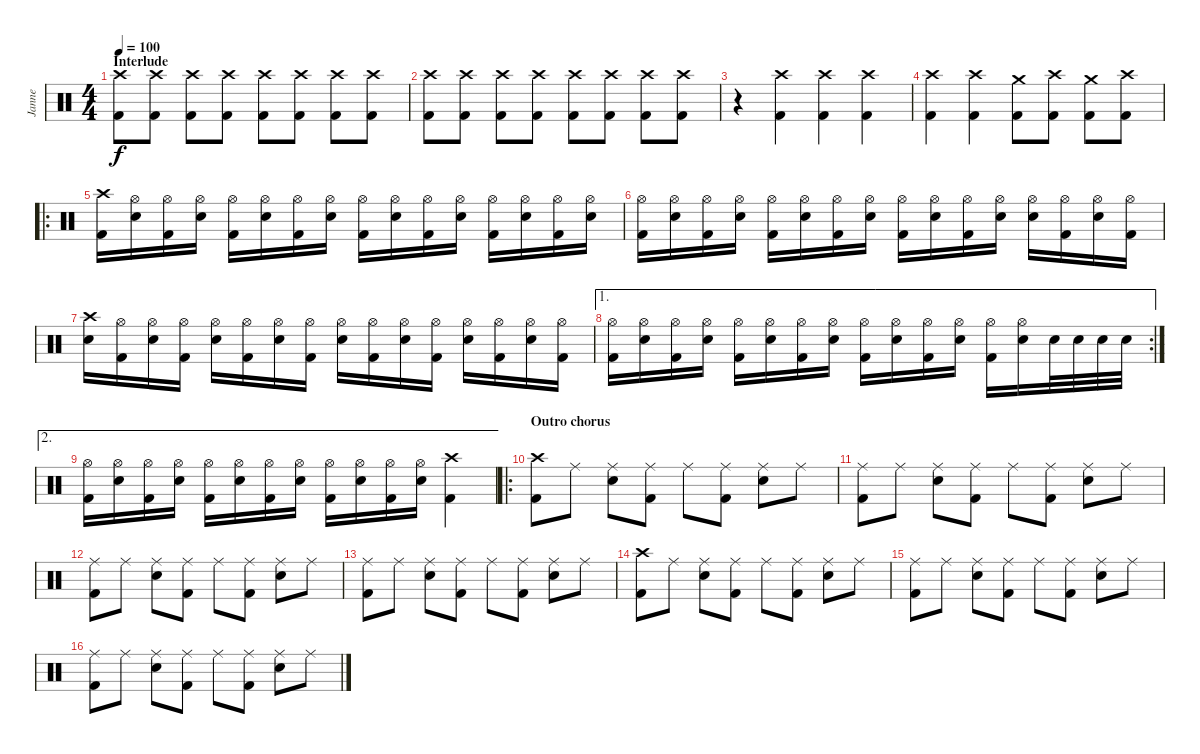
\track ("Janne" "Janne") {instrument percussion}
\staff {score}
\articulation defaults
\ts (4 4)
\section ("" "Interlude")
\tempo 100
\clef neutral
\ks c
("Crash high (hit)" "Kick (hit) 2").8{dy f} ("Crash high (hit)" "Kick (hit) 2").8 ("Crash high (hit)" "Kick (hit) 2").8 ("Crash high (hit)" "Kick (hit) 2").8 ("Crash high (hit)" "Kick (hit) 2").8 ("Crash high (hit)" "Kick (hit) 2").8 ("Crash high (hit)" "Kick (hit) 2").8 ("Crash high (hit)" "Kick (hit) 2").8 |
("Crash high (hit)" "Kick (hit) 2").8 ("Crash high (hit)" "Kick (hit) 2").8 ("Crash high (hit)" "Kick (hit) 2").8 ("Crash high (hit)" "Kick (hit) 2").8 ("Crash high (hit)" "Kick (hit) 2").8 ("Crash high (hit)" "Kick (hit) 2").8 ("Crash high (hit)" "Kick (hit) 2").8 ("Crash high (hit)" "Kick (hit) 2").8 |
r.4 ("Crash high (hit)" "Kick (hit) 2").4 ("Crash high (hit)" "Kick (hit) 2").4 ("Crash high (hit)" "Kick (hit) 2").4 |
("Crash high (hit)" "Kick (hit) 2").4 ("Crash high (hit)" "Kick (hit) 2").4 ("Crash medium (hit)" "Kick (hit) 2").8 ("Crash high (hit)" "Kick (hit) 2").8 ("Crash medium (hit)" "Kick (hit) 2").8 ("Crash high (hit)" "Kick (hit) 2").8 |
\ro
("Crash high (hit)" "Kick (hit) 2").16 ("Hi-Hat (open)" "Electric Snare (hit)").16 ("Hi-Hat (open)" "Kick (hit) 2").16 ("Hi-Hat (open)" "Electric Snare (hit)").16 ("Hi-Hat (open)" "Kick (hit) 2").16 ("Hi-Hat (open)" "Electric Snare (hit)").16 ("Hi-Hat (open)" "Kick (hit) 2").16 ("Hi-Hat (open)" "Electric Snare (hit)").16 ("Hi-Hat (open)" "Kick (hit) 2").16 ("Hi-Hat (open)" "Electric Snare (hit)").16 ("Hi-Hat (open)" "Kick (hit) 2").16 ("Hi-Hat (open)" "Electric Snare (hit)").16 ("Hi-Hat (open)" "Kick (hit) 2").16 ("Hi-Hat (open)" "Electric Snare (hit)").16 ("Hi-Hat (open)" "Kick (hit) 2").16 ("Hi-Hat (open)" "Electric Snare (hit)").16 |
("Hi-Hat (open)" "Kick (hit) 2").16 ("Hi-Hat (open)" "Electric Snare (hit)").16 ("Hi-Hat (open)" "Kick (hit) 2").16 ("Hi-Hat (open)" "Electric Snare (hit)").16 ("Hi-Hat (open)" "Kick (hit) 2").16 ("Hi-Hat (open)" "Electric Snare (hit)").16 ("Hi-Hat (open)" "Kick (hit) 2").16 ("Hi-Hat (open)" "Electric Snare (hit)").16 ("Hi-Hat (open)" "Kick (hit) 2").16 ("Hi-Hat (open)" "Electric Snare (hit)").16 ("Hi-Hat (open)" "Kick (hit) 2").16 ("Hi-Hat (open)" "Electric Snare (hit)").16 ("Hi-Hat (open)" "Electric Snare (hit)").16 ("Hi-Hat (open)" "Kick (hit) 2").16 ("Hi-Hat (open)" "Electric Snare (hit)").16 ("Hi-Hat (open)" "Kick (hit) 2").16 |
("Crash high (hit)" "Electric Snare (hit)").16 ("Hi-Hat (open)" "Kick (hit) 2").16 ("Hi-Hat (open)" "Electric Snare (hit)").16 ("Hi-Hat (open)" "Kick (hit) 2").16 ("Hi-Hat (open)" "Electric Snare (hit)").16 ("Hi-Hat (open)" "Kick (hit) 2").16 ("Hi-Hat (open)" "Electric Snare (hit)").16 ("Hi-Hat (open)" "Kick (hit) 2").16 ("Hi-Hat (open)" "Electric Snare (hit)").16 ("Hi-Hat (open)" "Kick (hit) 2").16 ("Hi-Hat (open)" "Electric Snare (hit)").16 ("Hi-Hat (open)" "Kick (hit) 2").16 ("Hi-Hat (open)" "Electric Snare (hit)").16 ("Hi-Hat (open)" "Kick (hit) 2").16 ("Hi-Hat (open)" "Electric Snare (hit)").16 ("Hi-Hat (open)" "Kick (hit) 2").16 |
\ae 1
\rc 2
("Hi-Hat (open)" "Kick (hit) 2").16 ("Hi-Hat (open)" "Electric Snare (hit)").16 ("Hi-Hat (open)" "Kick (hit) 2").16 ("Hi-Hat (open)" "Electric Snare (hit)").16 ("Hi-Hat (open)" "Kick (hit) 2").16 ("Hi-Hat (open)" "Electric Snare (hit)").16 ("Hi-Hat (open)" "Kick (hit) 2").16 ("Hi-Hat (open)" "Electric Snare (hit)").16 ("Hi-Hat (open)" "Kick (hit) 2").16 ("Hi-Hat (open)" "Electric Snare (hit)").16 ("Hi-Hat (open)" "Kick (hit) 2").16 ("Hi-Hat (open)" "Electric Snare (hit)").16 ("Hi-Hat (open)" "Kick (hit) 2").16 ("Hi-Hat (open)" "Electric Snare (hit)").16 "Electric Snare (hit)".32 "Electric Snare (hit)".32 "Electric Snare (hit)".32 "Electric Snare (hit)".32 |
\ae 2
("Hi-Hat (open)" "Kick (hit) 2").16 ("Hi-Hat (open)" "Electric Snare (hit)").16 ("Hi-Hat (open)" "Kick (hit) 2").16 ("Hi-Hat (open)" "Electric Snare (hit)").16 ("Hi-Hat (open)" "Kick (hit) 2").16 ("Hi-Hat (open)" "Electric Snare (hit)").16 ("Hi-Hat (open)" "Kick (hit) 2").16 ("Hi-Hat (open)" "Electric Snare (hit)").16 ("Hi-Hat (open)" "Kick (hit) 2").16 ("Hi-Hat (open)" "Electric Snare (hit)").16 ("Hi-Hat (open)" "Kick (hit) 2").16 ("Hi-Hat (open)" "Electric Snare (hit)").16 ("Crash high (hit)" "Kick (hit) 2").4 |
\ro
\section ("" "Outro chorus")
("Crash high (hit)" "Kick (hit) 2").8 "Ride (middle)".8 ("Ride (middle)" "Electric Snare (hit)").8 ("Ride (middle)" "Kick (hit) 2").8 "Ride (middle)".8 ("Ride (middle)" "Kick (hit) 2").8 ("Ride (middle)" "Electric Snare (hit)").8 "Ride (middle)".8 |
("Ride (middle)" "Kick (hit) 2").8 "Ride (middle)".8 ("Ride (middle)" "Electric Snare (hit)").8 ("Ride (middle)" "Kick (hit) 2").8 "Ride (middle)".8 ("Ride (middle)" "Kick (hit) 2").8 ("Ride (middle)" "Electric Snare (hit)").8 "Ride (middle)".8 |
("Ride (middle)" "Kick (hit) 2").8 "Ride (middle)".8 ("Ride (middle)" "Electric Snare (hit)").8 ("Ride (middle)" "Kick (hit) 2").8 "Ride (middle)".8 ("Ride (middle)" "Kick (hit) 2").8 ("Ride (middle)" "Electric Snare (hit)").8 "Ride (middle)".8 |
("Ride (middle)" "Kick (hit) 2").8 "Ride (middle)".8 ("Ride (middle)" "Electric Snare (hit)").8 ("Ride (middle)" "Kick (hit) 2").8 "Ride (middle)".8 ("Ride (middle)" "Kick (hit) 2").8 ("Ride (middle)" "Electric Snare (hit)").8 "Ride (middle)".8 |
("Crash high (hit)" "Kick (hit) 2").8 "Ride (middle)".8 ("Ride (middle)" "Electric Snare (hit)").8 ("Ride (middle)" "Kick (hit) 2").8 "Ride (middle)".8 ("Ride (middle)" "Kick (hit) 2").8 ("Ride (middle)" "Electric Snare (hit)").8 "Ride (middle)".8 |
("Ride (middle)" "Kick (hit) 2").8 "Ride (middle)".8 ("Ride (middle)" "Electric Snare (hit)").8 ("Ride (middle)" "Kick (hit) 2").8 "Ride (middle)".8 ("Ride (middle)" "Kick (hit) 2").8 ("Ride (middle)" "Electric Snare (hit)").8 "Ride (middle)".8 |
("Ride (middle)" "Kick (hit) 2").8 "Ride (middle)".8 ("Ride (middle)" "Electric Snare (hit)").8 ("Ride (middle)" "Kick (hit) 2").8 "Ride (middle)".8 ("Ride (middle)" "Kick (hit) 2").8 ("Ride (middle)" "Electric Snare (hit)").8 "Ride (middle)".8
